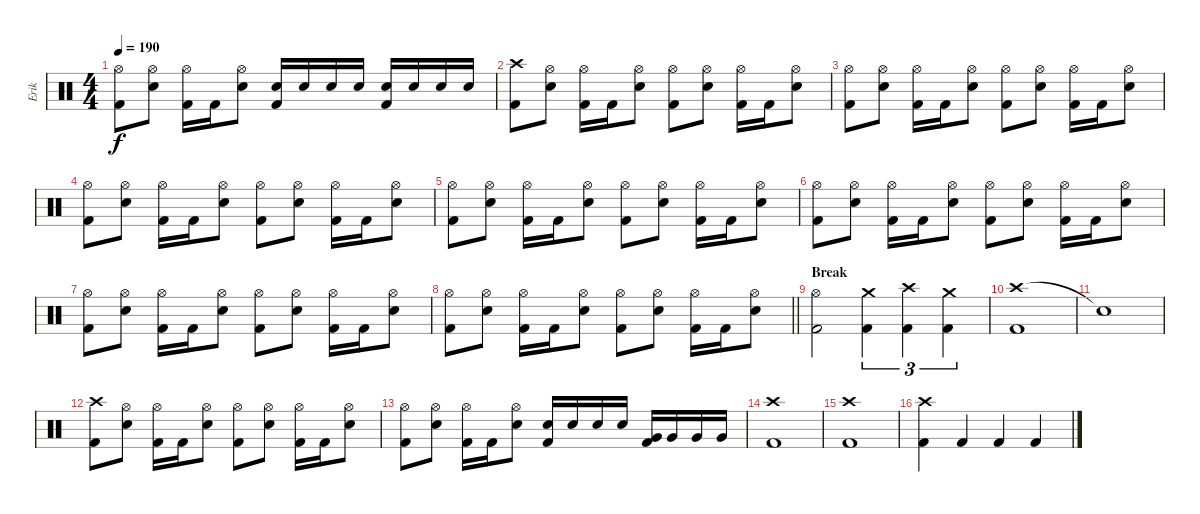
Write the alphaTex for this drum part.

\track ("Erik" "Erik") {instrument percussion}
\staff {score}
\articulation defaults
\ts (4 4)
\tempo 190
\clef neutral
\ks c
("Hi-Hat (open)" "Kick (hit) 2").8{dy f} ("Hi-Hat (open)" "Snare (hit) 2").8 ("Hi-Hat (open)" "Kick (hit) 2").16 "Kick (hit) 2".16 ("Hi-Hat (open)" "Snare (hit) 2").8 ("Snare (hit) 2" "Kick (hit) 2").16 "Snare (hit) 2".16 "Snare (hit) 2".16 "Snare (hit) 2".16 ("Snare (hit) 2" "Kick (hit) 2").16 "Snare (hit) 2".16 "Snare (hit) 2".16 "Snare (hit) 2".16 |
("Crash high (hit)" "Kick (hit) 2").8 ("Hi-Hat (open)" "Snare (hit) 2").8 ("Hi-Hat (open)" "Kick (hit) 2").16 "Kick (hit) 2".16 ("Hi-Hat (open)" "Snare (hit) 2").8 ("Hi-Hat (open)" "Kick (hit) 2").8 ("Hi-Hat (open)" "Snare (hit) 2").8 ("Hi-Hat (open)" "Kick (hit) 2").16 "Kick (hit) 2".16 ("Hi-Hat (open)" "Snare (hit) 2").8 |
("Hi-Hat (open)" "Kick (hit) 2").8 ("Hi-Hat (open)" "Snare (hit) 2").8 ("Hi-Hat (open)" "Kick (hit) 2").16 "Kick (hit) 2".16 ("Hi-Hat (open)" "Snare (hit) 2").8 ("Hi-Hat (open)" "Kick (hit) 2").8 ("Hi-Hat (open)" "Snare (hit) 2").8 ("Hi-Hat (open)" "Kick (hit) 2").16 "Kick (hit) 2".16 ("Hi-Hat (open)" "Snare (hit) 2").8 |
("Hi-Hat (open)" "Kick (hit) 2").8 ("Hi-Hat (open)" "Snare (hit) 2").8 ("Hi-Hat (open)" "Kick (hit) 2").16 "Kick (hit) 2".16 ("Hi-Hat (open)" "Snare (hit) 2").8 ("Hi-Hat (open)" "Kick (hit) 2").8 ("Hi-Hat (open)" "Snare (hit) 2").8 ("Hi-Hat (open)" "Kick (hit) 2").16 "Kick (hit) 2".16 ("Hi-Hat (open)" "Snare (hit) 2").8 |
("Hi-Hat (open)" "Kick (hit) 2").8 ("Hi-Hat (open)" "Snare (hit) 2").8 ("Hi-Hat (open)" "Kick (hit) 2").16 "Kick (hit) 2".16 ("Hi-Hat (open)" "Snare (hit) 2").8 ("Hi-Hat (open)" "Kick (hit) 2").8 ("Hi-Hat (open)" "Snare (hit) 2").8 ("Hi-Hat (open)" "Kick (hit) 2").16 "Kick (hit) 2".16 ("Hi-Hat (open)" "Snare (hit) 2").8 |
("Hi-Hat (open)" "Kick (hit) 2").8 ("Hi-Hat (open)" "Snare (hit) 2").8 ("Hi-Hat (open)" "Kick (hit) 2").16 "Kick (hit) 2".16 ("Hi-Hat (open)" "Snare (hit) 2").8 ("Hi-Hat (open)" "Kick (hit) 2").8 ("Hi-Hat (open)" "Snare (hit) 2").8 ("Hi-Hat (open)" "Kick (hit) 2").16 "Kick (hit) 2".16 ("Hi-Hat (open)" "Snare (hit) 2").8 |
("Hi-Hat (open)" "Kick (hit) 2").8 ("Hi-Hat (open)" "Snare (hit) 2").8 ("Hi-Hat (open)" "Kick (hit) 2").16 "Kick (hit) 2".16 ("Hi-Hat (open)" "Snare (hit) 2").8 ("Hi-Hat (open)" "Kick (hit) 2").8 ("Hi-Hat (open)" "Snare (hit) 2").8 ("Hi-Hat (open)" "Kick (hit) 2").16 "Kick (hit) 2".16 ("Hi-Hat (open)" "Snare (hit) 2").8 |
\barLineRight lightlight
("Hi-Hat (open)" "Kick (hit) 2").8 ("Hi-Hat (open)" "Snare (hit) 2").8 ("Hi-Hat (open)" "Kick (hit) 2").16 "Kick (hit) 2".16 ("Hi-Hat (open)" "Snare (hit) 2").8 ("Hi-Hat (open)" "Kick (hit) 2").8 ("Hi-Hat (open)" "Snare (hit) 2").8 ("Hi-Hat (open)" "Kick (hit) 2").16 "Kick (hit) 2".16 ("Hi-Hat (open)" "Snare (hit) 2").8 |
\section ("" "Break")
("Hi-Hat (open)" "Kick (hit) 2").2 ("Crash medium (hit)" "Kick (hit) 2").4{tu (3 2)} ("Crash high (hit)" "Kick (hit) 2").4{tu (3 2)} ("Crash medium (hit)" "Kick (hit) 2").4{tu (3 2)} |
("Crash high (hit)" "Kick (hit) 2").1 |
"Snare (hit)"{t}.1 |
("Crash high (hit)" "Kick (hit) 2").8 ("Hi-Hat (open)" "Snare (hit) 2").8 ("Hi-Hat (open)" "Kick (hit) 2").16 "Kick (hit) 2".16 ("Hi-Hat (open)" "Snare (hit) 2").8 ("Hi-Hat (open)" "Kick (hit) 2").8 ("Hi-Hat (open)" "Snare (hit) 2").8 ("Hi-Hat (open)" "Kick (hit) 2").16 "Kick (hit) 2".16 ("Hi-Hat (open)" "Snare (hit) 2").8 |
("Hi-Hat (open)" "Kick (hit) 2").8 ("Hi-Hat (open)" "Snare (hit) 2").8 ("Hi-Hat (open)" "Kick (hit) 2").16 "Kick (hit) 2".16 ("Hi-Hat (open)" "Snare (hit) 2").8 ("Snare (hit) 2" "Kick (hit) 2").16 "Snare (hit) 2".16 "Snare (hit) 2".16 "Snare (hit) 2".16 ("Very Low Tom (hit)" "Kick (hit) 2").16 "Very Low Tom (hit)".16 "Very Low Tom (hit)".16 "Very Low Tom (hit)".16 |
("Crash high (hit)" "Kick (hit) 2").1 |
("Crash high (hit)" "Kick (hit) 2").1 |
("Crash high (hit)" "Kick (hit) 2").4 "Kick (hit) 2".4 "Kick (hit) 2".4 "Kick (hit) 2".4
